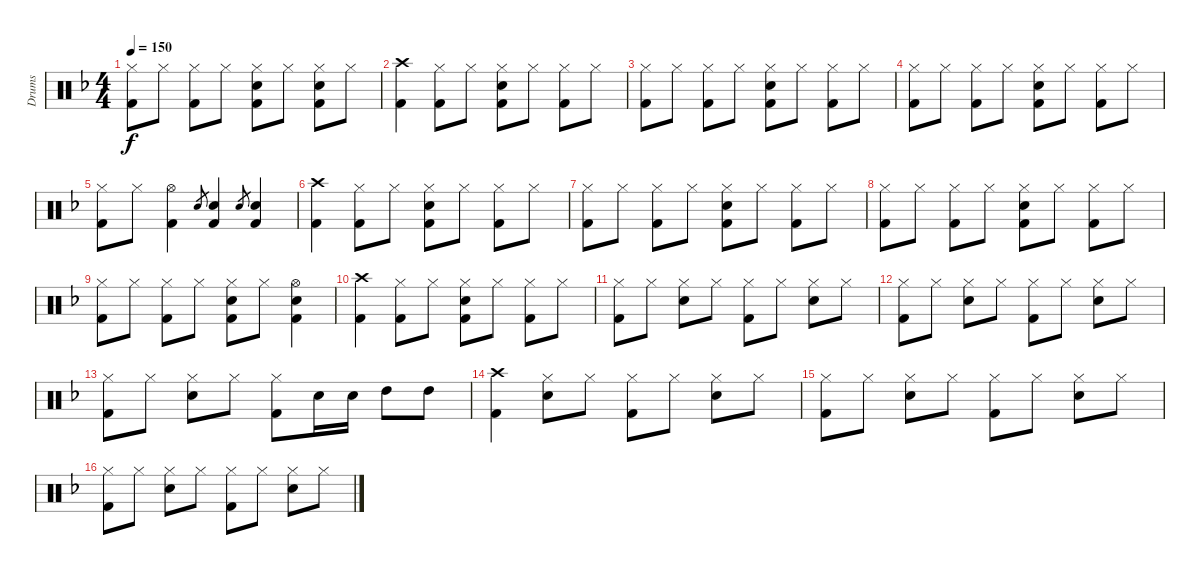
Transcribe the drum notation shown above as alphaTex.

\track ("Drums" "Drums") {instrument percussion}
\staff {score}
\articulation defaults
\ts (4 4)
\tempo 150
\clef neutral
\ks f
("Hi-Hat (closed)" "Kick (hit) 2").8{dy f} "Hi-Hat (closed)".8 ("Hi-Hat (closed)" "Kick (hit) 2").8 "Hi-Hat (closed)".8 ("Hi-Hat (closed)" "Electric Snare (hit)" "Kick (hit) 2").8 "Hi-Hat (closed)".8 ("Hi-Hat (closed)" "Electric Snare (hit)" "Kick (hit) 2").8 "Hi-Hat (closed)".8 |
("Crash high (hit)" "Kick (hit) 2").4 ("Hi-Hat (closed)" "Kick (hit) 2").8 "Hi-Hat (closed)".8 ("Hi-Hat (closed)" "Electric Snare (hit)" "Kick (hit) 2").8 "Hi-Hat (closed)".8 ("Hi-Hat (closed)" "Kick (hit) 2").8 "Hi-Hat (closed)".8 |
("Hi-Hat (closed)" "Kick (hit) 2").8 "Hi-Hat (closed)".8 ("Hi-Hat (closed)" "Kick (hit) 2").8 "Hi-Hat (closed)".8 ("Hi-Hat (closed)" "Electric Snare (hit)" "Kick (hit) 2").8 "Hi-Hat (closed)".8 ("Hi-Hat (closed)" "Kick (hit) 2").8 "Hi-Hat (closed)".8 |
("Hi-Hat (closed)" "Kick (hit) 2").8 "Hi-Hat (closed)".8 ("Hi-Hat (closed)" "Kick (hit) 2").8 "Hi-Hat (closed)".8 ("Hi-Hat (closed)" "Electric Snare (hit)" "Kick (hit) 2").8 "Hi-Hat (closed)".8 ("Hi-Hat (closed)" "Kick (hit) 2").8 "Hi-Hat (closed)".8 |
("Hi-Hat (closed)" "Kick (hit) 2").8 "Hi-Hat (closed)".8 ("Hi-Hat (open)" "Kick (hit) 2").4 "Electric Snare (hit)".8{gr} ("Electric Snare (hit)" "Kick (hit) 2").4 "Electric Snare (hit)".8{gr} ("Electric Snare (hit)" "Kick (hit) 2").4 |
("Crash high (hit)" "Kick (hit) 2").4 ("Hi-Hat (closed)" "Kick (hit) 2").8 "Hi-Hat (closed)".8 ("Hi-Hat (closed)" "Electric Snare (hit)" "Kick (hit) 2").8 "Hi-Hat (closed)".8 ("Hi-Hat (closed)" "Kick (hit) 2").8 "Hi-Hat (closed)".8 |
("Hi-Hat (closed)" "Kick (hit) 2").8 "Hi-Hat (closed)".8 ("Hi-Hat (closed)" "Kick (hit) 2").8 "Hi-Hat (closed)".8 ("Hi-Hat (closed)" "Electric Snare (hit)" "Kick (hit) 2").8 "Hi-Hat (closed)".8 ("Hi-Hat (closed)" "Kick (hit) 2").8 "Hi-Hat (closed)".8 |
("Hi-Hat (closed)" "Kick (hit) 2").8 "Hi-Hat (closed)".8 ("Hi-Hat (closed)" "Kick (hit) 2").8 "Hi-Hat (closed)".8 ("Hi-Hat (closed)" "Electric Snare (hit)" "Kick (hit) 2").8 "Hi-Hat (closed)".8 ("Hi-Hat (closed)" "Kick (hit) 2").8 "Hi-Hat (closed)".8 |
("Hi-Hat (closed)" "Kick (hit) 2").8 "Hi-Hat (closed)".8 ("Hi-Hat (closed)" "Kick (hit) 2").8 "Hi-Hat (closed)".8 ("Hi-Hat (closed)" "Electric Snare (hit)" "Kick (hit) 2").8 "Hi-Hat (closed)".8 ("Hi-Hat (open)" "Electric Snare (hit)" "Kick (hit) 2").4 |
("Crash high (hit)" "Kick (hit) 2").4 ("Hi-Hat (closed)" "Kick (hit) 2").8 "Hi-Hat (closed)".8 ("Hi-Hat (closed)" "Electric Snare (hit)" "Kick (hit) 2").8 "Hi-Hat (closed)".8 ("Hi-Hat (closed)" "Kick (hit) 2").8 "Hi-Hat (closed)".8 |
("Hi-Hat (closed)" "Kick (hit) 2").8 "Hi-Hat (closed)".8 ("Hi-Hat (closed)" "Electric Snare (hit)").8 "Hi-Hat (closed)".8 ("Hi-Hat (closed)" "Kick (hit) 2").8 "Hi-Hat (closed)".8 ("Hi-Hat (closed)" "Electric Snare (hit)").8 "Hi-Hat (closed)".8 |
("Hi-Hat (closed)" "Kick (hit) 2").8 "Hi-Hat (closed)".8 ("Hi-Hat (closed)" "Electric Snare (hit)").8 "Hi-Hat (closed)".8 ("Hi-Hat (closed)" "Kick (hit) 2").8 "Hi-Hat (closed)".8 ("Hi-Hat (closed)" "Electric Snare (hit)").8 "Hi-Hat (closed)".8 |
("Hi-Hat (closed)" "Kick (hit) 2").8 "Hi-Hat (closed)".8 ("Hi-Hat (closed)" "Electric Snare (hit)").8 "Hi-Hat (closed)".8 ("Hi-Hat (closed)" "Kick (hit) 2").8 "Electric Snare (hit)".16 "Electric Snare (hit)".16 "High Tom (hit)".8 "High Tom (hit)".8 |
("Crash high (hit)" "Kick (hit) 2").4 ("Hi-Hat (closed)" "Electric Snare (hit)").8 "Hi-Hat (closed)".8 ("Hi-Hat (closed)" "Kick (hit) 2").8 "Hi-Hat (closed)".8 ("Hi-Hat (closed)" "Electric Snare (hit)").8 "Hi-Hat (closed)".8 |
("Hi-Hat (closed)" "Kick (hit) 2").8 "Hi-Hat (closed)".8 ("Hi-Hat (closed)" "Electric Snare (hit)").8 "Hi-Hat (closed)".8 ("Hi-Hat (closed)" "Kick (hit) 2").8 "Hi-Hat (closed)".8 ("Hi-Hat (closed)" "Electric Snare (hit)").8 "Hi-Hat (closed)".8 |
("Hi-Hat (closed)" "Kick (hit) 2").8 "Hi-Hat (closed)".8 ("Hi-Hat (closed)" "Electric Snare (hit)").8 "Hi-Hat (closed)".8 ("Hi-Hat (closed)" "Kick (hit) 2").8 "Hi-Hat (closed)".8 ("Hi-Hat (closed)" "Electric Snare (hit)").8 "Hi-Hat (closed)".8
